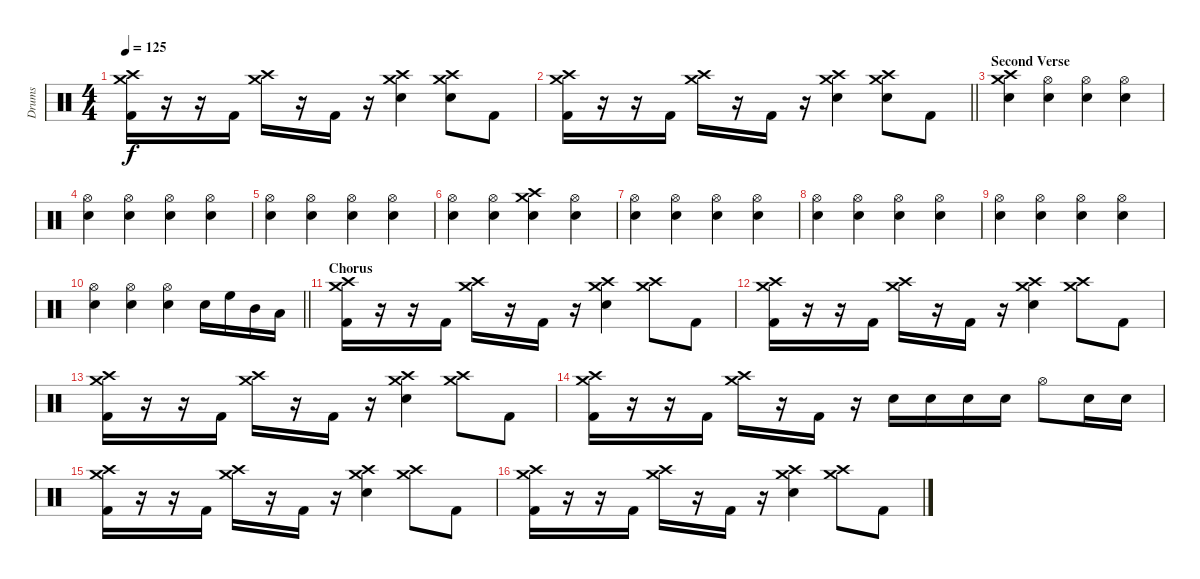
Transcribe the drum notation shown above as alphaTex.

\track ("Drums" "Drums") {instrument percussion}
\staff {score}
\articulation defaults
\ts (4 4)
\tempo 125
\clef neutral
\ks c
("Crash high (hit)" "Crash medium (hit)" "Kick (hit) 2").16{dy f} r.16 r.16 "Kick (hit) 2".16 ("Crash high (hit)" "Crash medium (hit)").16 r.16 "Kick (hit) 2".16 r.16 ("Crash high (hit)" "Crash medium (hit)" "Snare (hit) 2").4 ("Crash high (hit)" "Crash medium (hit)" "Snare (hit) 2").8 "Kick (hit) 2".8 |
\barLineRight lightlight
("Crash high (hit)" "Crash medium (hit)" "Kick (hit) 2").16 r.16 r.16 "Kick (hit) 2".16 ("Crash high (hit)" "Crash medium (hit)").16 r.16 "Kick (hit) 2".16 r.16 ("Crash high (hit)" "Crash medium (hit)" "Snare (hit) 2").4 ("Crash high (hit)" "Crash medium (hit)" "Snare (hit) 2").8 "Kick (hit) 2".8 |
\section ("" "Second Verse")
("Crash medium (hit)" "Crash high (hit)" "Snare (hit) 2").4 ("Hi-Hat (open)" "Snare (hit) 2").4 ("Hi-Hat (open)" "Snare (hit) 2").4 ("Hi-Hat (open)" "Snare (hit) 2").4 |
("Hi-Hat (open)" "Snare (hit) 2").4 ("Hi-Hat (open)" "Snare (hit) 2").4 ("Hi-Hat (open)" "Snare (hit) 2").4 ("Hi-Hat (open)" "Snare (hit) 2").4 |
("Hi-Hat (open)" "Snare (hit) 2").4 ("Hi-Hat (open)" "Snare (hit) 2").4 ("Hi-Hat (open)" "Snare (hit) 2").4 ("Hi-Hat (open)" "Snare (hit) 2").4 |
("Hi-Hat (open)" "Snare (hit) 2").4 ("Hi-Hat (open)" "Snare (hit) 2").4 ("Crash medium (hit)" "Crash high (hit)" "Snare (hit) 2").4 ("Hi-Hat (open)" "Snare (hit) 2").4 |
("Hi-Hat (open)" "Snare (hit) 2").4 ("Hi-Hat (open)" "Snare (hit) 2").4 ("Hi-Hat (open)" "Snare (hit) 2").4 ("Hi-Hat (open)" "Snare (hit) 2").4 |
("Hi-Hat (open)" "Snare (hit) 2").4 ("Hi-Hat (open)" "Snare (hit) 2").4 ("Hi-Hat (open)" "Snare (hit) 2").4 ("Hi-Hat (open)" "Snare (hit) 2").4 |
("Hi-Hat (open)" "Snare (hit) 2").4 ("Hi-Hat (open)" "Snare (hit) 2").4 ("Hi-Hat (open)" "Snare (hit) 2").4 ("Hi-Hat (open)" "Snare (hit) 2").4 |
\barLineRight lightlight
("Hi-Hat (open)" "Snare (hit) 2").4 ("Hi-Hat (open)" "Snare (hit) 2").4 ("Hi-Hat (open)" "Snare (hit) 2").4 "Snare (hit) 2".16 "High Floor Tom (hit)".16 "Mid Tom (hit)".16 "Low Tom (hit)".16 |
\section ("" "Chorus")
("Crash high (hit)" "Crash medium (hit)" "Kick (hit) 2").16 r.16 r.16 "Kick (hit) 2".16 ("Crash high (hit)" "Crash medium (hit)").16 r.16 "Kick (hit) 2".16 r.16 ("Crash high (hit)" "Crash medium (hit)" "Snare (hit) 2").4 ("Crash high (hit)" "Crash medium (hit)").8 "Kick (hit) 2".8 |
("Crash high (hit)" "Crash medium (hit)" "Kick (hit) 2").16 r.16 r.16 "Kick (hit) 2".16 ("Crash high (hit)" "Crash medium (hit)").16 r.16 "Kick (hit) 2".16 r.16 ("Crash high (hit)" "Crash medium (hit)" "Snare (hit) 2").4 ("Crash high (hit)" "Crash medium (hit)").8 "Kick (hit) 2".8 |
("Crash high (hit)" "Crash medium (hit)" "Kick (hit) 2").16 r.16 r.16 "Kick (hit) 2".16 ("Crash high (hit)" "Crash medium (hit)").16 r.16 "Kick (hit) 2".16 r.16 ("Crash high (hit)" "Crash medium (hit)" "Snare (hit) 2").4 ("Crash high (hit)" "Crash medium (hit)").8 "Kick (hit) 2".8 |
("Crash high (hit)" "Crash medium (hit)" "Kick (hit) 2").16 r.16 r.16 "Kick (hit) 2".16 ("Crash high (hit)" "Crash medium (hit)").16 r.16 "Kick (hit) 2".16 r.16 "Snare (hit) 2".16 "Snare (hit) 2".16 "Snare (hit) 2".16 "Snare (hit) 2".16 "Hi-Hat (open)".8 "Snare (hit) 2".16 "Snare (hit) 2".16 |
("Crash high (hit)" "Crash medium (hit)" "Kick (hit) 2").16 r.16 r.16 "Kick (hit) 2".16 ("Crash high (hit)" "Crash medium (hit)").16 r.16 "Kick (hit) 2".16 r.16 ("Crash high (hit)" "Crash medium (hit)" "Snare (hit) 2").4 ("Crash high (hit)" "Crash medium (hit)").8 "Kick (hit) 2".8 |
("Crash high (hit)" "Crash medium (hit)" "Kick (hit) 2").16 r.16 r.16 "Kick (hit) 2".16 ("Crash high (hit)" "Crash medium (hit)").16 r.16 "Kick (hit) 2".16 r.16 ("Crash high (hit)" "Crash medium (hit)" "Snare (hit) 2").4 ("Crash high (hit)" "Crash medium (hit)").8 "Kick (hit) 2".8
